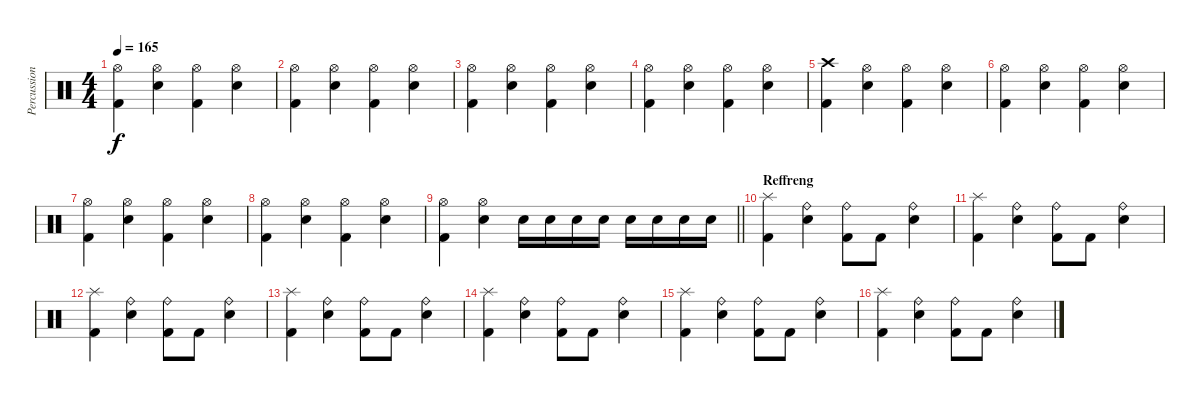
\track ("Percussions" "Percussion") {instrument percussion}
\staff {score}
\articulation defaults
\ts (4 4)
\tempo 165
\clef neutral
\ks c
("Hi-Hat (open)" "Kick (hit) 2").4{dy f} ("Hi-Hat (open)" "Snare (hit) 2").4 ("Hi-Hat (open)" "Kick (hit) 2").4 ("Hi-Hat (open)" "Snare (hit) 2").4 |
("Hi-Hat (open)" "Kick (hit) 2").4 ("Hi-Hat (open)" "Snare (hit) 2").4 ("Hi-Hat (open)" "Kick (hit) 2").4 ("Hi-Hat (open)" "Snare (hit) 2").4 |
("Hi-Hat (open)" "Kick (hit) 2").4 ("Hi-Hat (open)" "Snare (hit) 2").4 ("Hi-Hat (open)" "Kick (hit) 2").4 ("Hi-Hat (open)" "Snare (hit) 2").4 |
("Hi-Hat (open)" "Kick (hit) 2").4 ("Hi-Hat (open)" "Snare (hit) 2").4 ("Hi-Hat (open)" "Kick (hit) 2").4 ("Hi-Hat (open)" "Snare (hit) 2").4 |
("Crash high (hit)" "Kick (hit) 2").4 ("Hi-Hat (open)" "Snare (hit) 2").4 ("Hi-Hat (open)" "Kick (hit) 2").4 ("Hi-Hat (open)" "Snare (hit) 2").4 |
("Hi-Hat (open)" "Kick (hit) 2").4 ("Hi-Hat (open)" "Snare (hit) 2").4 ("Hi-Hat (open)" "Kick (hit) 2").4 ("Hi-Hat (open)" "Snare (hit) 2").4 |
("Hi-Hat (open)" "Kick (hit) 2").4 ("Hi-Hat (open)" "Snare (hit) 2").4 ("Hi-Hat (open)" "Kick (hit) 2").4 ("Hi-Hat (open)" "Snare (hit) 2").4 |
("Hi-Hat (open)" "Kick (hit) 2").4 ("Hi-Hat (open)" "Snare (hit) 2").4 ("Hi-Hat (open)" "Kick (hit) 2").4 ("Hi-Hat (open)" "Snare (hit) 2").4 |
\barLineRight lightlight
("Hi-Hat (open)" "Kick (hit) 2").4 ("Hi-Hat (open)" "Snare (hit) 2").4 "Snare (hit) 2".16 "Snare (hit) 2".16 "Snare (hit) 2".16 "Snare (hit) 2".16 "Snare (hit) 2".16 "Snare (hit) 2".16 "Snare (hit) 2".16 "Snare (hit) 2".16 |
\section ("" "Reffreng")
("Splash (hit)" "Kick (hit) 2").4 ("Ride (bell)" "Snare (hit) 2").4 ("Ride (bell)" "Kick (hit) 2").8 "Kick (hit) 2".8 ("Ride (bell)" "Snare (hit) 2").4 |
("Splash (hit)" "Kick (hit) 2").4 ("Ride (bell)" "Snare (hit) 2").4 ("Ride (bell)" "Kick (hit) 2").8 "Kick (hit) 2".8 ("Ride (bell)" "Snare (hit) 2").4 |
("Splash (hit)" "Kick (hit) 2").4 ("Ride (bell)" "Snare (hit) 2").4 ("Ride (bell)" "Kick (hit) 2").8 "Kick (hit) 2".8 ("Ride (bell)" "Snare (hit) 2").4 |
("Splash (hit)" "Kick (hit) 2").4 ("Ride (bell)" "Snare (hit) 2").4 ("Ride (bell)" "Kick (hit) 2").8 "Kick (hit) 2".8 ("Ride (bell)" "Snare (hit) 2").4 |
("Splash (hit)" "Kick (hit) 2").4 ("Ride (bell)" "Snare (hit) 2").4 ("Ride (bell)" "Kick (hit) 2").8 "Kick (hit) 2".8 ("Ride (bell)" "Snare (hit) 2").4 |
("Splash (hit)" "Kick (hit) 2").4 ("Ride (bell)" "Snare (hit) 2").4 ("Ride (bell)" "Kick (hit) 2").8 "Kick (hit) 2".8 ("Ride (bell)" "Snare (hit) 2").4 |
("Splash (hit)" "Kick (hit) 2").4 ("Ride (bell)" "Snare (hit) 2").4 ("Ride (bell)" "Kick (hit) 2").8 "Kick (hit) 2".8 ("Ride (bell)" "Snare (hit) 2").4
